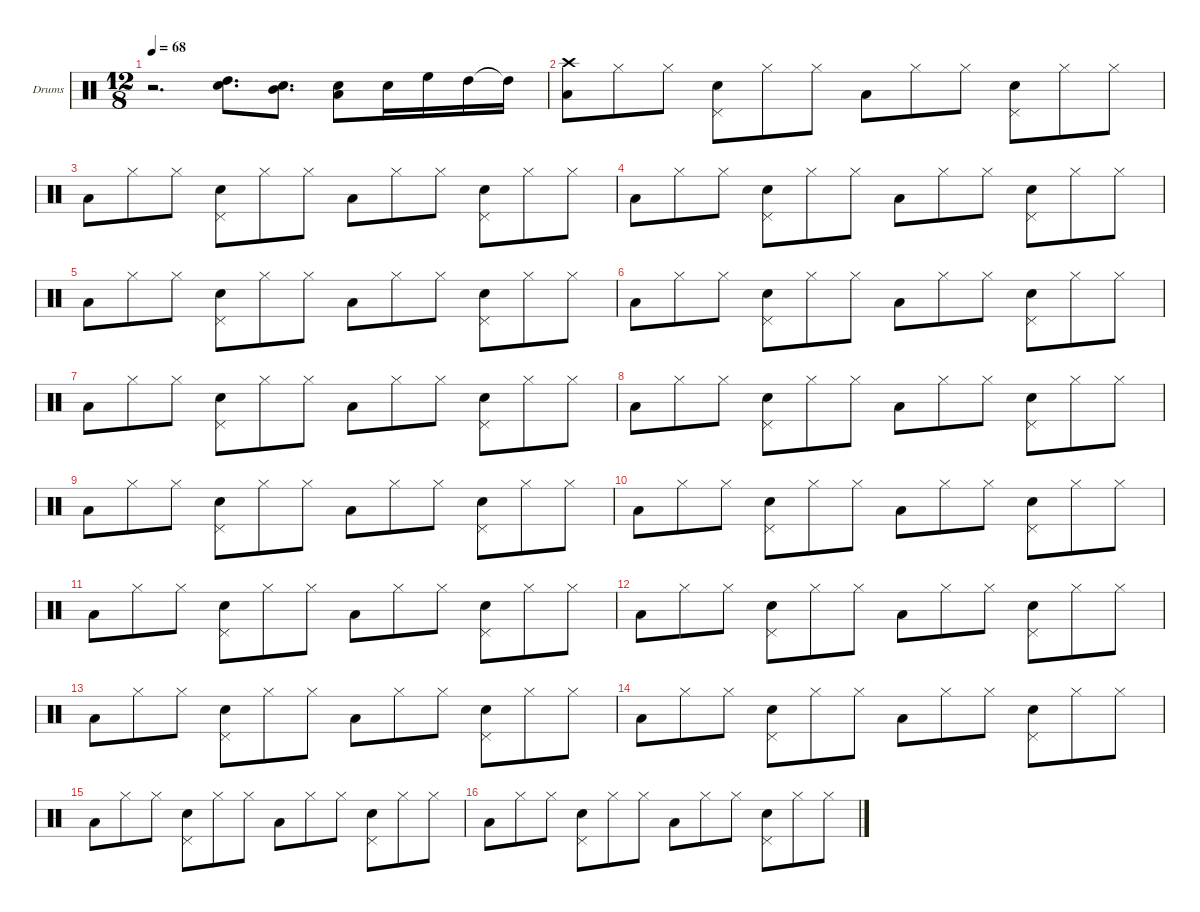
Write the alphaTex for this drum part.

\hideDynamics
\bracketExtendMode nobrackets
\firstSystemTrackNameOrientation horizontal
\otherSystemsTrackNameOrientation horizontal
\track ("Drums" "Drums") {instrument percussion}
\staff {score}
\articulation defaults
\ts (12 8)
\tempo 68
\clef neutral
\ks c
r.2{d dy f} ("Snare (hit) 2" "High Tom (hit)").8{d} ("Snare (hit) 2" "Mid Tom (hit)").8{d} ("Snare (hit) 2" "Low Tom (hit)").8 "Snare (hit) 2".16 "High Floor Tom (hit)".16 "High Tom (hit)".16 "High Tom (hit)"{t}.16 |
("Low Tom (hit)" "Crash high (hit)").8 "Hi-Hat (closed)".8 "Hi-Hat (closed)".8 ("Pedal Hi-Hat (hit)" "Snare (hit) 2").8 "Hi-Hat (closed)".8 "Hi-Hat (closed)".8 "Low Tom (hit)".8 "Hi-Hat (closed)".8 "Hi-Hat (closed)".8 ("Pedal Hi-Hat (hit)" "Snare (hit) 2").8 "Hi-Hat (closed)".8 "Hi-Hat (closed)".8 |
"Low Tom (hit)".8 "Hi-Hat (closed)".8 "Hi-Hat (closed)".8 ("Pedal Hi-Hat (hit)" "Snare (hit) 2").8 "Hi-Hat (closed)".8 "Hi-Hat (closed)".8 "Low Tom (hit)".8 "Hi-Hat (closed)".8 "Hi-Hat (closed)".8 ("Pedal Hi-Hat (hit)" "Snare (hit) 2").8 "Hi-Hat (closed)".8 "Hi-Hat (closed)".8 |
"Low Tom (hit)".8 "Hi-Hat (closed)".8 "Hi-Hat (closed)".8 ("Pedal Hi-Hat (hit)" "Snare (hit) 2").8 "Hi-Hat (closed)".8 "Hi-Hat (closed)".8 "Low Tom (hit)".8 "Hi-Hat (closed)".8 "Hi-Hat (closed)".8 ("Pedal Hi-Hat (hit)" "Snare (hit) 2").8 "Hi-Hat (closed)".8 "Hi-Hat (closed)".8 |
"Low Tom (hit)".8 "Hi-Hat (closed)".8 "Hi-Hat (closed)".8 ("Pedal Hi-Hat (hit)" "Snare (hit) 2").8 "Hi-Hat (closed)".8 "Hi-Hat (closed)".8 "Low Tom (hit)".8 "Hi-Hat (closed)".8 "Hi-Hat (closed)".8 ("Pedal Hi-Hat (hit)" "Snare (hit) 2").8 "Hi-Hat (closed)".8 "Hi-Hat (closed)".8 |
"Low Tom (hit)".8 "Hi-Hat (closed)".8 "Hi-Hat (closed)".8 ("Pedal Hi-Hat (hit)" "Snare (hit) 2").8 "Hi-Hat (closed)".8 "Hi-Hat (closed)".8 "Low Tom (hit)".8 "Hi-Hat (closed)".8 "Hi-Hat (closed)".8 ("Pedal Hi-Hat (hit)" "Snare (hit) 2").8 "Hi-Hat (closed)".8 "Hi-Hat (closed)".8 |
"Low Tom (hit)".8 "Hi-Hat (closed)".8 "Hi-Hat (closed)".8 ("Pedal Hi-Hat (hit)" "Snare (hit) 2").8 "Hi-Hat (closed)".8 "Hi-Hat (closed)".8 "Low Tom (hit)".8 "Hi-Hat (closed)".8 "Hi-Hat (closed)".8 ("Pedal Hi-Hat (hit)" "Snare (hit) 2").8 "Hi-Hat (closed)".8 "Hi-Hat (closed)".8 |
"Low Tom (hit)".8 "Hi-Hat (closed)".8 "Hi-Hat (closed)".8 ("Pedal Hi-Hat (hit)" "Snare (hit) 2").8 "Hi-Hat (closed)".8 "Hi-Hat (closed)".8 "Low Tom (hit)".8 "Hi-Hat (closed)".8 "Hi-Hat (closed)".8 ("Pedal Hi-Hat (hit)" "Snare (hit) 2").8 "Hi-Hat (closed)".8 "Hi-Hat (closed)".8 |
"Low Tom (hit)".8 "Hi-Hat (closed)".8 "Hi-Hat (closed)".8 ("Pedal Hi-Hat (hit)" "Snare (hit) 2").8 "Hi-Hat (closed)".8 "Hi-Hat (closed)".8 "Low Tom (hit)".8 "Hi-Hat (closed)".8 "Hi-Hat (closed)".8 ("Pedal Hi-Hat (hit)" "Snare (hit) 2").8 "Hi-Hat (closed)".8 "Hi-Hat (closed)".8 |
"Low Tom (hit)".8 "Hi-Hat (closed)".8 "Hi-Hat (closed)".8 ("Pedal Hi-Hat (hit)" "Snare (hit) 2").8 "Hi-Hat (closed)".8 "Hi-Hat (closed)".8 "Low Tom (hit)".8 "Hi-Hat (closed)".8 "Hi-Hat (closed)".8 ("Pedal Hi-Hat (hit)" "Snare (hit) 2").8 "Hi-Hat (closed)".8 "Hi-Hat (closed)".8 |
"Low Tom (hit)".8 "Hi-Hat (closed)".8 "Hi-Hat (closed)".8 ("Pedal Hi-Hat (hit)" "Snare (hit) 2").8 "Hi-Hat (closed)".8 "Hi-Hat (closed)".8 "Low Tom (hit)".8 "Hi-Hat (closed)".8 "Hi-Hat (closed)".8 ("Pedal Hi-Hat (hit)" "Snare (hit) 2").8 "Hi-Hat (closed)".8 "Hi-Hat (closed)".8 |
"Low Tom (hit)".8 "Hi-Hat (closed)".8 "Hi-Hat (closed)".8 ("Pedal Hi-Hat (hit)" "Snare (hit) 2").8 "Hi-Hat (closed)".8 "Hi-Hat (closed)".8 "Low Tom (hit)".8 "Hi-Hat (closed)".8 "Hi-Hat (closed)".8 ("Pedal Hi-Hat (hit)" "Snare (hit) 2").8 "Hi-Hat (closed)".8 "Hi-Hat (closed)".8 |
"Low Tom (hit)".8 "Hi-Hat (closed)".8 "Hi-Hat (closed)".8 ("Pedal Hi-Hat (hit)" "Snare (hit) 2").8 "Hi-Hat (closed)".8 "Hi-Hat (closed)".8 "Low Tom (hit)".8 "Hi-Hat (closed)".8 "Hi-Hat (closed)".8 ("Pedal Hi-Hat (hit)" "Snare (hit) 2").8 "Hi-Hat (closed)".8 "Hi-Hat (closed)".8 |
"Low Tom (hit)".8 "Hi-Hat (closed)".8 "Hi-Hat (closed)".8 ("Pedal Hi-Hat (hit)" "Snare (hit) 2").8 "Hi-Hat (closed)".8 "Hi-Hat (closed)".8 "Low Tom (hit)".8 "Hi-Hat (closed)".8 "Hi-Hat (closed)".8 ("Pedal Hi-Hat (hit)" "Snare (hit) 2").8 "Hi-Hat (closed)".8 "Hi-Hat (closed)".8 |
"Low Tom (hit)".8 "Hi-Hat (closed)".8 "Hi-Hat (closed)".8 ("Pedal Hi-Hat (hit)" "Snare (hit) 2").8 "Hi-Hat (closed)".8 "Hi-Hat (closed)".8 "Low Tom (hit)".8 "Hi-Hat (closed)".8 "Hi-Hat (closed)".8 ("Pedal Hi-Hat (hit)" "Snare (hit) 2").8 "Hi-Hat (closed)".8 "Hi-Hat (closed)".8 |
"Low Tom (hit)".8 "Hi-Hat (closed)".8 "Hi-Hat (closed)".8 ("Pedal Hi-Hat (hit)" "Snare (hit) 2").8 "Hi-Hat (closed)".8 "Hi-Hat (closed)".8 "Low Tom (hit)".8 "Hi-Hat (closed)".8 "Hi-Hat (closed)".8 ("Pedal Hi-Hat (hit)" "Snare (hit) 2").8 "Hi-Hat (closed)".8 "Hi-Hat (closed)".8
